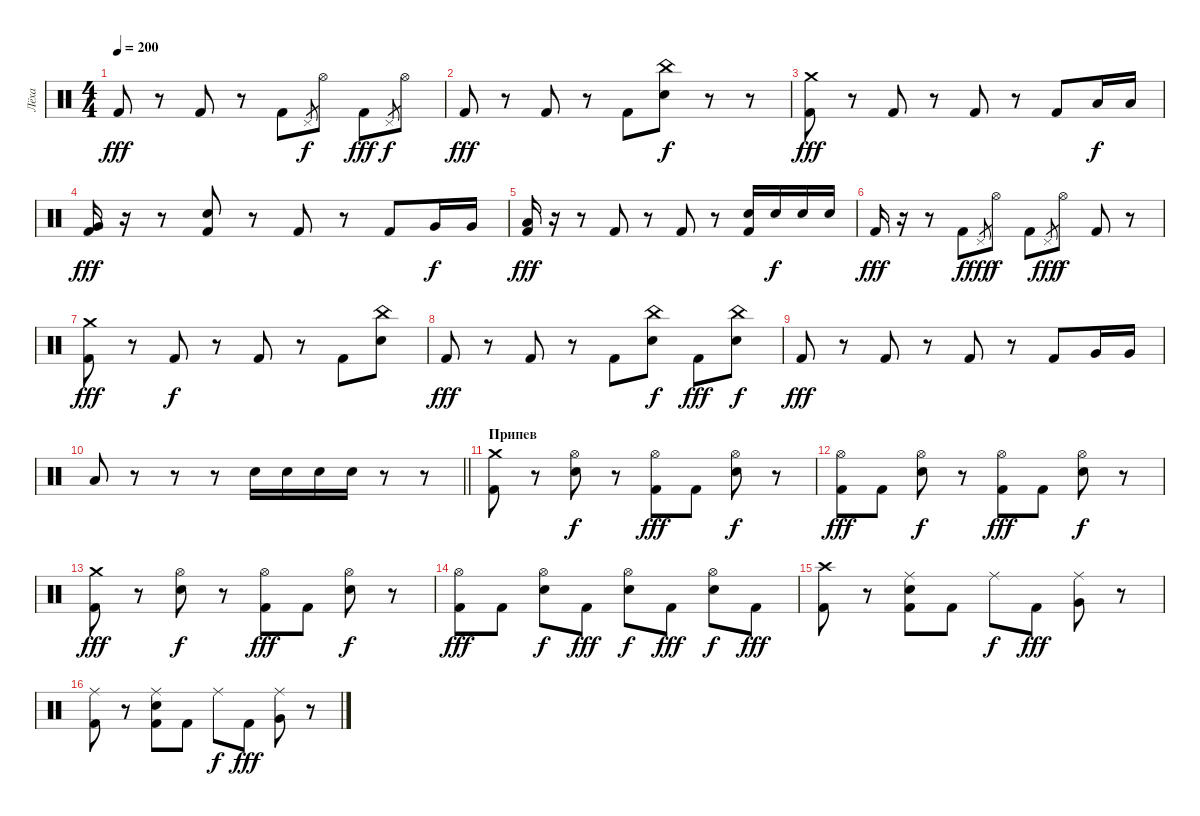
\track ("Лёха" "Лёха") {instrument percussion}
\staff {score}
\articulation defaults
\ts (4 4)
\tempo 200
\clef neutral
\ks c "Kick (hit) 2".8{dy fff}
r.8 "Kick (hit) 2".8 r.8 "Kick (hit) 2".8 "Pedal Hi-Hat (hit)".8{gr dy f} "Hi-Hat (open)".8 "Kick (hit) 2".8{dy fff} "Pedal Hi-Hat (hit)".8{gr dy f} "Hi-Hat (open)".8 |
"Kick (hit) 2".8{dy fff} r.8 "Kick (hit) 2".8 r.8 "Kick (hit) 2".8 ("China (hit)" "Electric Snare (hit)").8{dy f} r.8 r.8 |
("Crash medium (hit)" "Kick (hit) 2").8{dy fff} r.8 "Kick (hit) 2".8 r.8 "Kick (hit) 2".8 r.8 "Kick (hit) 2".8 "Low Tom (hit)".16{dy f} "Low Tom (hit)".16 |
("Very Low Tom (hit)" "Kick (hit) 2").16{dy fff} r.16 r.8 ("Electric Snare (hit)" "Kick (hit) 2").8 r.8 "Kick (hit) 2".8 r.8 "Kick (hit) 2".8 "Very Low Tom (hit)".16{dy f} "Very Low Tom (hit)".16 |
("Low Floor Tom (hit)" "Kick (hit) 2").16{dy fff} r.16 r.8 "Kick (hit) 2".8 r.8 "Kick (hit) 2".8 r.8 ("Electric Snare (hit)" "Kick (hit) 2").16 "Electric Snare (hit)".16{dy f} "Electric Snare (hit)".16 "Electric Snare (hit)".16 |
"Kick (hit) 2".16{dy fff} r.16 r.8 "Kick (hit) 2".8{dy f} "Pedal Hi-Hat (hit)".8{gr dy fff} "Hi-Hat (open)".8{dy f} "Kick (hit) 2".8 "Pedal Hi-Hat (hit)".8{gr dy fff} "Hi-Hat (open)".8{dy f} "Kick (hit) 2".8 r.8 |
("Crash medium (hit)" "Kick (hit) 2").8{dy fff} r.8 "Kick (hit) 2".8{dy f} r.8 "Kick (hit) 2".8 r.8 "Kick (hit) 2".8 ("China (hit)" "Electric Snare (hit)").8 |
"Kick (hit) 2".8{dy fff} r.8 "Kick (hit) 2".8 r.8 "Kick (hit) 2".8 ("China (hit)" "Electric Snare (hit)").8{dy f} "Kick (hit) 2".8{dy fff} ("China (hit)" "Electric Snare (hit)").8{dy f} |
"Kick (hit) 2".8{dy fff} r.8 "Kick (hit) 2".8 r.8 "Kick (hit) 2".8 r.8 "Kick (hit) 2".8 "Very Low Tom (hit)".16 "Very Low Tom (hit)".16 |
\barLineRight lightlight "Low Floor Tom (hit)".8
r.8 r.8 r.8 "Electric Snare (hit)".16 "Electric Snare (hit)".16 "Electric Snare (hit)".16 "Electric Snare (hit)".16 r.8 r.8 |
\section ("" "Припев")
("Crash medium (hit)" "Kick (hit) 2").8 r.8 ("Hi-Hat (open)" "Electric Snare (hit)").8{dy f} r.8 ("Hi-Hat (open)" "Kick (hit) 2").8{dy fff} "Kick (hit) 2".8 ("Hi-Hat (open)" "Electric Snare (hit)").8{dy f} r.8 |
("Hi-Hat (open)" "Kick (hit) 2").8{dy fff} "Kick (hit) 2".8 ("Hi-Hat (open)" "Electric Snare (hit)").8{dy f} r.8 ("Hi-Hat (open)" "Kick (hit) 2").8{dy fff} "Kick (hit) 2".8 ("Hi-Hat (open)" "Electric Snare (hit)").8{dy f} r.8 |
("Crash medium (hit)" "Kick (hit) 2").8{dy fff} r.8 ("Hi-Hat (open)" "Electric Snare (hit)").8{dy f} r.8 ("Hi-Hat (open)" "Kick (hit) 2").8{dy fff} "Kick (hit) 2".8 ("Hi-Hat (open)" "Electric Snare (hit)").8{dy f} r.8 |
("Hi-Hat (open)" "Kick (hit) 2").8{dy fff} "Kick (hit) 2".8 ("Hi-Hat (open)" "Electric Snare (hit)").8{dy f} "Kick (hit) 2".8{dy fff} ("Hi-Hat (open)" "Electric Snare (hit)").8{dy f} "Kick (hit) 2".8{dy fff} ("Hi-Hat (open)" "Electric Snare (hit)").8{dy f} "Kick (hit) 2".8{dy fff} |
("Crash high (hit)" "Kick (hit) 2").8 r.8 ("Ride (middle)" "Electric Snare (hit)" "Kick (hit) 2").8 "Kick (hit) 2".8 "Ride (middle)".8{dy f} "Kick (hit) 2".8{dy fff} ("Ride (middle)" "Very Low Tom (hit)").8 r.8 |
("Ride (middle)" "Kick (hit) 2").8 r.8 ("Ride (middle)" "Electric Snare (hit)" "Kick (hit) 2").8 "Kick (hit) 2".8 "Ride (middle)".8{dy f} "Kick (hit) 2".8{dy fff} ("Ride (middle)" "Very Low Tom (hit)").8 r.8
